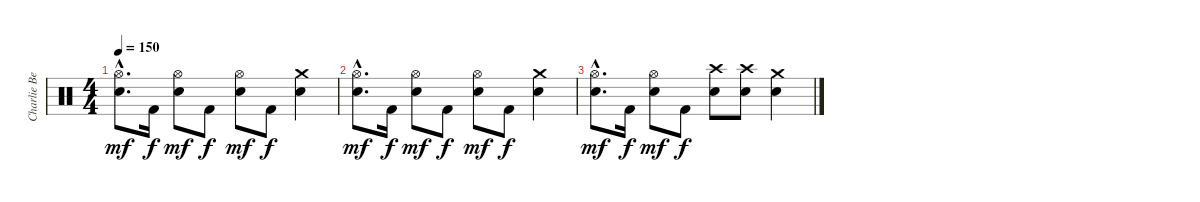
\track ("Charlie Benante" "Charlie Be") {instrument percussion}
\staff {score}
\articulation defaults
\ts (4 4)
\tempo 150
\clef neutral
\ks c
("Hi-Hat (open)"{hac} "Snare (hit) 2"{hac}).8{d dy mf} "Kick (hit) 2".16{dy f} ("Hi-Hat (open)" "Snare (hit) 2").8{dy mf} "Kick (hit) 2".8{dy f} ("Hi-Hat (open)" "Snare (hit) 2").8{dy mf} "Kick (hit) 2".8{dy f} ("Crash medium (hit)" "Snare (hit) 2").4 |
("Hi-Hat (open)"{hac} "Snare (hit) 2"{hac}).8{d dy mf} "Kick (hit) 2".16{dy f} ("Hi-Hat (open)" "Snare (hit) 2").8{dy mf} "Kick (hit) 2".8{dy f} ("Hi-Hat (open)" "Snare (hit) 2").8{dy mf} "Kick (hit) 2".8{dy f} ("Crash medium (hit)" "Snare (hit) 2").4 |
("Hi-Hat (open)"{hac} "Snare (hit) 2"{hac}).8{d dy mf} "Kick (hit) 2".16{dy f} ("Hi-Hat (open)" "Snare (hit) 2").8{dy mf} "Kick (hit) 2".8{dy f} ("Crash high (hit)" "Snare (hit) 2").8 ("Crash high (hit)" "Snare (hit) 2").8 ("Crash medium (hit)" "Snare (hit) 2").4
